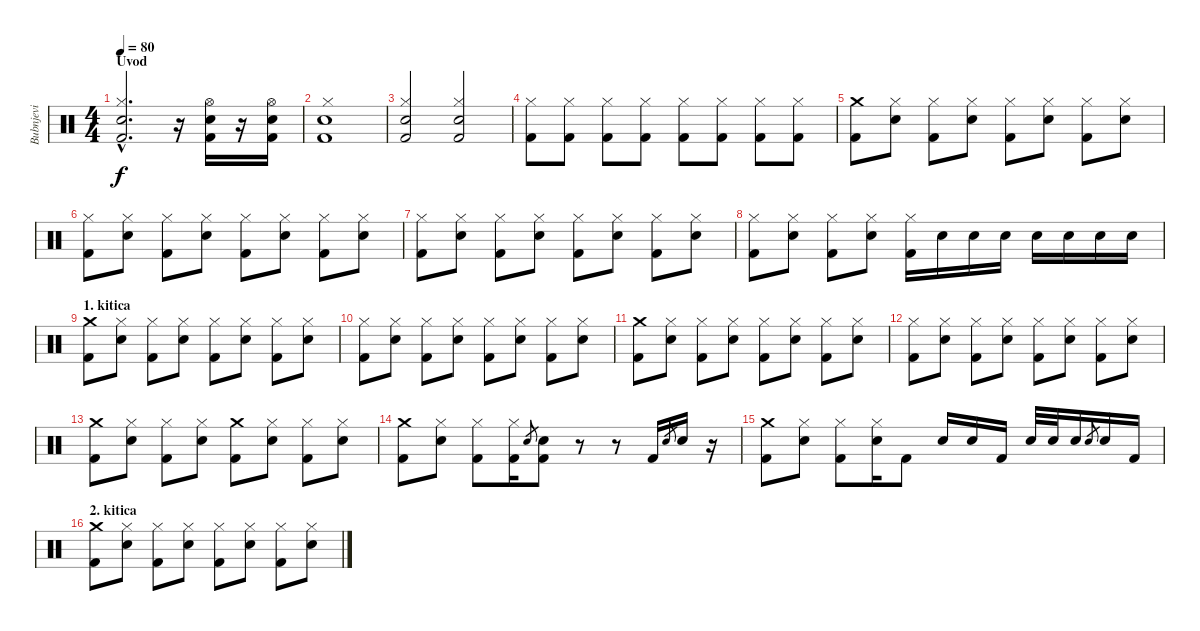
\track ("Bubnjevi" "Bubnjevi") {instrument percussion}
\staff {score}
\articulation defaults
\ts (4 4)
\section ("" "Uvod")
\tempo 80
\clef neutral
\ks c
("Electric Snare (hit)"{hac} "Hi-Hat (closed)"{hac} "Kick (hit) 2"{hac}).2{d dy f} r.16 ("Electric Snare (hit)" "Hi-Hat (open)" "Kick (hit) 2").16 r.16 ("Electric Snare (hit)" "Hi-Hat (open)" "Kick (hit) 2").16 |
("Electric Snare (hit)" "Hi-Hat (closed)" "Kick (hit) 2").1 |
("Electric Snare (hit)" "Hi-Hat (closed)" "Kick (hit) 2").2 ("Electric Snare (hit)" "Hi-Hat (closed)" "Kick (hit) 2").2 |
("Hi-Hat (closed)" "Kick (hit) 2").8 ("Hi-Hat (closed)" "Kick (hit) 2").8 ("Hi-Hat (closed)" "Kick (hit) 2").8 ("Hi-Hat (closed)" "Kick (hit) 2").8 ("Hi-Hat (closed)" "Kick (hit) 2").8 ("Hi-Hat (closed)" "Kick (hit) 2").8 ("Hi-Hat (closed)" "Kick (hit) 2").8 ("Hi-Hat (closed)" "Kick (hit) 2").8 |
("Crash medium (hit)" "Kick (hit) 2").8 ("Electric Snare (hit)" "Hi-Hat (closed)").8 ("Hi-Hat (closed)" "Kick (hit) 2").8 ("Electric Snare (hit)" "Hi-Hat (closed)").8 ("Hi-Hat (closed)" "Kick (hit) 2").8 ("Electric Snare (hit)" "Hi-Hat (closed)").8 ("Hi-Hat (closed)" "Kick (hit) 2").8 ("Electric Snare (hit)" "Hi-Hat (closed)").8 |
("Hi-Hat (closed)" "Kick (hit) 2").8 ("Electric Snare (hit)" "Hi-Hat (closed)").8 ("Hi-Hat (closed)" "Kick (hit) 2").8 ("Electric Snare (hit)" "Hi-Hat (closed)").8 ("Hi-Hat (closed)" "Kick (hit) 2").8 ("Electric Snare (hit)" "Hi-Hat (closed)").8 ("Hi-Hat (closed)" "Kick (hit) 2").8 ("Electric Snare (hit)" "Hi-Hat (closed)").8 |
("Hi-Hat (closed)" "Kick (hit) 2").8 ("Electric Snare (hit)" "Hi-Hat (closed)").8 ("Hi-Hat (closed)" "Kick (hit) 2").8 ("Electric Snare (hit)" "Hi-Hat (closed)").8 ("Hi-Hat (closed)" "Kick (hit) 2").8 ("Electric Snare (hit)" "Hi-Hat (closed)").8 ("Hi-Hat (closed)" "Kick (hit) 2").8 ("Electric Snare (hit)" "Hi-Hat (closed)").8 |
("Hi-Hat (closed)" "Kick (hit) 2").8 ("Electric Snare (hit)" "Hi-Hat (closed)").8 ("Hi-Hat (closed)" "Kick (hit) 2").8 ("Electric Snare (hit)" "Hi-Hat (closed)").8 ("Hi-Hat (closed)" "Kick (hit) 2").16 "Electric Snare (hit)".16 "Electric Snare (hit)".16 "Electric Snare (hit)".16 "Electric Snare (hit)".16 "Electric Snare (hit)".16 "Electric Snare (hit)".16 "Electric Snare (hit)".16 |
\section ("" "1. kitica")
("Crash medium (hit)" "Kick (hit) 2").8 ("Electric Snare (hit)" "Hi-Hat (closed)").8 ("Hi-Hat (closed)" "Kick (hit) 2").8 ("Electric Snare (hit)" "Hi-Hat (closed)").8 ("Hi-Hat (closed)" "Kick (hit) 2").8 ("Electric Snare (hit)" "Hi-Hat (closed)").8 ("Hi-Hat (closed)" "Kick (hit) 2").8 ("Electric Snare (hit)" "Hi-Hat (closed)").8 |
("Hi-Hat (closed)" "Kick (hit) 2").8 ("Electric Snare (hit)" "Hi-Hat (closed)").8 ("Hi-Hat (closed)" "Kick (hit) 2").8 ("Electric Snare (hit)" "Hi-Hat (closed)").8 ("Hi-Hat (closed)" "Kick (hit) 2").8 ("Electric Snare (hit)" "Hi-Hat (closed)").8 ("Hi-Hat (closed)" "Kick (hit) 2").8 ("Electric Snare (hit)" "Hi-Hat (closed)").8 |
("Crash medium (hit)" "Kick (hit) 2").8 ("Electric Snare (hit)" "Hi-Hat (closed)").8 ("Hi-Hat (closed)" "Kick (hit) 2").8 ("Electric Snare (hit)" "Hi-Hat (closed)").8 ("Hi-Hat (closed)" "Kick (hit) 2").8 ("Electric Snare (hit)" "Hi-Hat (closed)").8 ("Hi-Hat (closed)" "Kick (hit) 2").8 ("Electric Snare (hit)" "Hi-Hat (closed)").8 |
("Hi-Hat (closed)" "Kick (hit) 2").8 ("Electric Snare (hit)" "Hi-Hat (closed)").8 ("Hi-Hat (closed)" "Kick (hit) 2").8 ("Electric Snare (hit)" "Hi-Hat (closed)").8 ("Hi-Hat (closed)" "Kick (hit) 2").8 ("Electric Snare (hit)" "Hi-Hat (closed)").8 ("Hi-Hat (closed)" "Kick (hit) 2").8 ("Electric Snare (hit)" "Hi-Hat (closed)").8 |
("Crash medium (hit)" "Kick (hit) 2").8 ("Electric Snare (hit)" "Hi-Hat (closed)").8 ("Hi-Hat (closed)" "Kick (hit) 2").8 ("Electric Snare (hit)" "Hi-Hat (closed)").8 ("Crash medium (hit)" "Kick (hit) 2").8 ("Electric Snare (hit)" "Hi-Hat (closed)").8 ("Hi-Hat (closed)" "Kick (hit) 2").8 ("Electric Snare (hit)" "Hi-Hat (closed)").8 |
("Crash medium (hit)" "Kick (hit) 2").8 ("Electric Snare (hit)" "Hi-Hat (closed)").8 ("Hi-Hat (closed)" "Kick (hit) 2").8 ("Hi-Hat (closed)" "Kick (hit) 2").16 "Electric Snare (hit)".8{gr} ("Electric Snare (hit)" "Kick (hit) 2").8 r.8 r.8 "Kick (hit) 2".16 "Electric Snare (hit)".8{gr} "Electric Snare (hit)".16 r.16 |
("Crash medium (hit)" "Kick (hit) 2").8 ("Electric Snare (hit)" "Hi-Hat (closed)").8 ("Hi-Hat (closed)" "Kick (hit) 2").8 ("Electric Snare (hit)" "Hi-Hat (closed)").16 "Kick (hit) 2".8 "Electric Snare (hit)".16 "Electric Snare (hit)".16 "Kick (hit) 2".16 "Electric Snare (hit)".32 "Electric Snare (hit)".32 "Electric Snare (hit)".16 "Electric Snare (hit)".8{gr} "Electric Snare (hit)".16 "Kick (hit) 2".16 |
\section ("" "2. kitica")
("Crash medium (hit)" "Kick (hit) 2").8 ("Electric Snare (hit)" "Hi-Hat (closed)").8 ("Hi-Hat (closed)" "Kick (hit) 2").8 ("Electric Snare (hit)" "Hi-Hat (closed)").8 ("Hi-Hat (closed)" "Kick (hit) 2").8 ("Electric Snare (hit)" "Hi-Hat (closed)").8 ("Hi-Hat (closed)" "Kick (hit) 2").8 ("Electric Snare (hit)" "Hi-Hat (closed)").8
